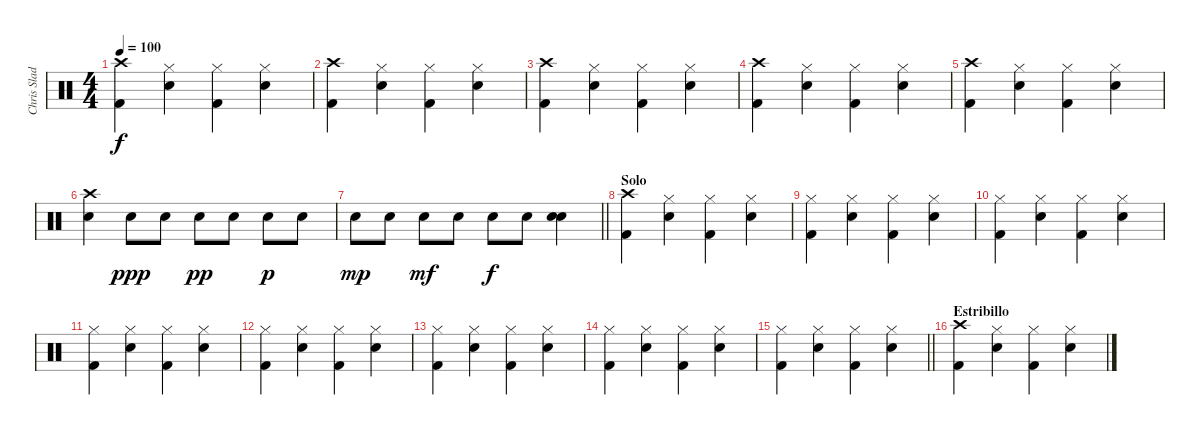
\track ("Chris Slade" "Chris Slad") {instrument percussion}
\staff {score}
\articulation defaults
\ts (4 4)
\tempo 100
\clef neutral
\ks c
("Kick (hit) 2" "Crash high (hit)").4{dy f} ("Snare (hit) 2" "Hi-Hat (closed)").4 ("Kick (hit) 2" "Hi-Hat (closed)").4 ("Snare (hit) 2" "Hi-Hat (closed)").4 |
("Kick (hit) 2" "Crash high (hit)").4 ("Snare (hit) 2" "Hi-Hat (closed)").4 ("Kick (hit) 2" "Hi-Hat (closed)").4 ("Snare (hit) 2" "Hi-Hat (closed)").4 |
("Kick (hit) 2" "Crash high (hit)").4 ("Snare (hit) 2" "Hi-Hat (closed)").4 ("Kick (hit) 2" "Hi-Hat (closed)").4 ("Snare (hit) 2" "Hi-Hat (closed)").4 |
("Kick (hit) 2" "Crash high (hit)").4 ("Snare (hit) 2" "Hi-Hat (closed)").4 ("Kick (hit) 2" "Hi-Hat (closed)").4 ("Snare (hit) 2" "Hi-Hat (closed)").4 |
("Kick (hit) 2" "Crash high (hit)").4 ("Snare (hit) 2" "Hi-Hat (closed)").4 ("Kick (hit) 2" "Hi-Hat (closed)").4 ("Snare (hit) 2" "Hi-Hat (closed)").4 |
("Crash high (hit)" "Snare (hit) 2").4 "Snare (hit) 2".8{dy ppp} "Snare (hit) 2".8 "Snare (hit) 2".8{dy pp} "Snare (hit) 2".8 "Snare (hit) 2".8{dy p} "Snare (hit) 2".8 |
\barLineRight lightlight "Snare (hit) 2".8{dy mp} "Snare (hit) 2".8 "Snare (hit) 2".8{dy mf} "Snare (hit) 2".8 "Snare (hit) 2".8{dy f} "Snare (hit) 2".8
("Snare (hit) 2" "Snare (hit) 2").4{bd 120} |
\section ("" "Solo")
("Kick (hit) 2" "Crash high (hit)").4 ("Snare (hit) 2" "Hi-Hat (closed)").4 ("Kick (hit) 2" "Hi-Hat (closed)").4 ("Snare (hit) 2" "Hi-Hat (closed)").4 |
("Kick (hit) 2" "Hi-Hat (closed)").4 ("Snare (hit) 2" "Hi-Hat (closed)").4 ("Kick (hit) 2" "Hi-Hat (closed)").4 ("Snare (hit) 2" "Hi-Hat (closed)").4 |
("Kick (hit) 2" "Hi-Hat (closed)").4 ("Snare (hit) 2" "Hi-Hat (closed)").4 ("Kick (hit) 2" "Hi-Hat (closed)").4 ("Snare (hit) 2" "Hi-Hat (closed)").4 |
("Kick (hit) 2" "Hi-Hat (closed)").4 ("Snare (hit) 2" "Hi-Hat (closed)").4 ("Kick (hit) 2" "Hi-Hat (closed)").4 ("Snare (hit) 2" "Hi-Hat (closed)").4 |
("Kick (hit) 2" "Hi-Hat (closed)").4 ("Snare (hit) 2" "Hi-Hat (closed)").4 ("Kick (hit) 2" "Hi-Hat (closed)").4 ("Snare (hit) 2" "Hi-Hat (closed)").4 |
("Kick (hit) 2" "Hi-Hat (closed)").4 ("Snare (hit) 2" "Hi-Hat (closed)").4 ("Kick (hit) 2" "Hi-Hat (closed)").4 ("Snare (hit) 2" "Hi-Hat (closed)").4 |
("Kick (hit) 2" "Hi-Hat (closed)").4 ("Snare (hit) 2" "Hi-Hat (closed)").4 ("Kick (hit) 2" "Hi-Hat (closed)").4 ("Snare (hit) 2" "Hi-Hat (closed)").4 |
\barLineRight lightlight
("Kick (hit) 2" "Hi-Hat (closed)").4 ("Snare (hit) 2" "Hi-Hat (closed)").4 ("Kick (hit) 2" "Hi-Hat (closed)").4 ("Snare (hit) 2" "Hi-Hat (closed)").4 |
\section ("" "Estribillo")
("Kick (hit) 2" "Crash high (hit)").4 ("Snare (hit) 2" "Hi-Hat (closed)").4 ("Kick (hit) 2" "Hi-Hat (closed)").4 ("Snare (hit) 2" "Hi-Hat (closed)").4
